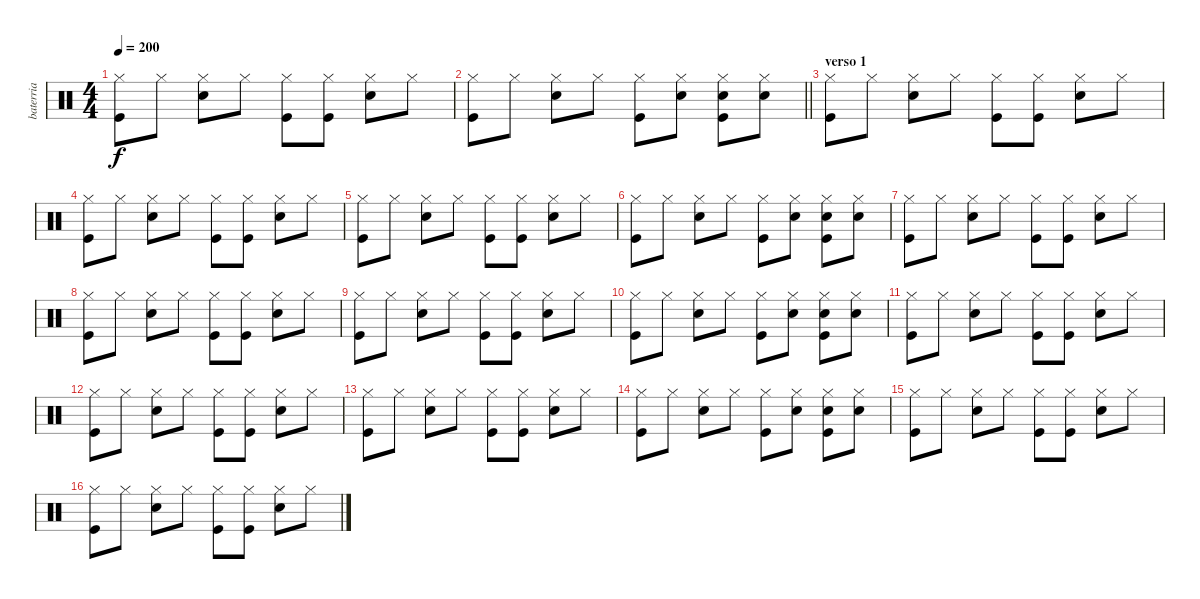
\track ("baterria" "baterria") {instrument percussion}
\staff {score}
\articulation defaults
\ts (4 4)
\tempo 200
\clef neutral
\ks c
("Hi-Hat (closed)" "Kick (hit)").8{dy f} "Hi-Hat (closed)".8 ("Hi-Hat (closed)" "Electric Snare (hit)").8 "Hi-Hat (closed)".8 ("Hi-Hat (closed)" "Kick (hit)").8 ("Hi-Hat (closed)" "Kick (hit)").8 ("Hi-Hat (closed)" "Electric Snare (hit)").8 "Hi-Hat (closed)".8 |
\barLineRight lightlight
("Hi-Hat (closed)" "Kick (hit)").8 "Hi-Hat (closed)".8 ("Hi-Hat (closed)" "Electric Snare (hit)").8 "Hi-Hat (closed)".8 ("Hi-Hat (closed)" "Kick (hit)").8 ("Hi-Hat (closed)" "Electric Snare (hit)").8 ("Hi-Hat (closed)" "Electric Snare (hit)" "Kick (hit)").8 ("Hi-Hat (closed)" "Electric Snare (hit)").8 |
\section ("" "verso 1")
("Hi-Hat (closed)" "Kick (hit)").8 "Hi-Hat (closed)".8 ("Hi-Hat (closed)" "Electric Snare (hit)").8 "Hi-Hat (closed)".8 ("Hi-Hat (closed)" "Kick (hit)").8 ("Hi-Hat (closed)" "Kick (hit)").8 ("Hi-Hat (closed)" "Electric Snare (hit)").8 "Hi-Hat (closed)".8 |
("Hi-Hat (closed)" "Kick (hit)").8 "Hi-Hat (closed)".8 ("Hi-Hat (closed)" "Electric Snare (hit)").8 "Hi-Hat (closed)".8 ("Hi-Hat (closed)" "Kick (hit)").8 ("Hi-Hat (closed)" "Kick (hit)").8 ("Hi-Hat (closed)" "Electric Snare (hit)").8 "Hi-Hat (closed)".8 |
("Hi-Hat (closed)" "Kick (hit)").8 "Hi-Hat (closed)".8 ("Hi-Hat (closed)" "Electric Snare (hit)").8 "Hi-Hat (closed)".8 ("Hi-Hat (closed)" "Kick (hit)").8 ("Hi-Hat (closed)" "Kick (hit)").8 ("Hi-Hat (closed)" "Electric Snare (hit)").8 "Hi-Hat (closed)".8 |
("Hi-Hat (closed)" "Kick (hit)").8 "Hi-Hat (closed)".8 ("Hi-Hat (closed)" "Electric Snare (hit)").8 "Hi-Hat (closed)".8 ("Hi-Hat (closed)" "Kick (hit)").8 ("Hi-Hat (closed)" "Electric Snare (hit)").8 ("Hi-Hat (closed)" "Electric Snare (hit)" "Kick (hit)").8 ("Hi-Hat (closed)" "Electric Snare (hit)").8 |
("Hi-Hat (closed)" "Kick (hit)").8 "Hi-Hat (closed)".8 ("Hi-Hat (closed)" "Electric Snare (hit)").8 "Hi-Hat (closed)".8 ("Hi-Hat (closed)" "Kick (hit)").8 ("Hi-Hat (closed)" "Kick (hit)").8 ("Hi-Hat (closed)" "Electric Snare (hit)").8 "Hi-Hat (closed)".8 |
("Hi-Hat (closed)" "Kick (hit)").8 "Hi-Hat (closed)".8 ("Hi-Hat (closed)" "Electric Snare (hit)").8 "Hi-Hat (closed)".8 ("Hi-Hat (closed)" "Kick (hit)").8 ("Hi-Hat (closed)" "Kick (hit)").8 ("Hi-Hat (closed)" "Electric Snare (hit)").8 "Hi-Hat (closed)".8 |
("Hi-Hat (closed)" "Kick (hit)").8 "Hi-Hat (closed)".8 ("Hi-Hat (closed)" "Electric Snare (hit)").8 "Hi-Hat (closed)".8 ("Hi-Hat (closed)" "Kick (hit)").8 ("Hi-Hat (closed)" "Kick (hit)").8 ("Hi-Hat (closed)" "Electric Snare (hit)").8 "Hi-Hat (closed)".8 |
("Hi-Hat (closed)" "Kick (hit)").8 "Hi-Hat (closed)".8 ("Hi-Hat (closed)" "Electric Snare (hit)").8 "Hi-Hat (closed)".8 ("Hi-Hat (closed)" "Kick (hit)").8 ("Hi-Hat (closed)" "Electric Snare (hit)").8 ("Hi-Hat (closed)" "Electric Snare (hit)" "Kick (hit)").8 ("Hi-Hat (closed)" "Electric Snare (hit)").8 |
("Hi-Hat (closed)" "Kick (hit)").8 "Hi-Hat (closed)".8 ("Hi-Hat (closed)" "Electric Snare (hit)").8 "Hi-Hat (closed)".8 ("Hi-Hat (closed)" "Kick (hit)").8 ("Hi-Hat (closed)" "Kick (hit)").8 ("Hi-Hat (closed)" "Electric Snare (hit)").8 "Hi-Hat (closed)".8 |
("Hi-Hat (closed)" "Kick (hit)").8 "Hi-Hat (closed)".8 ("Hi-Hat (closed)" "Electric Snare (hit)").8 "Hi-Hat (closed)".8 ("Hi-Hat (closed)" "Kick (hit)").8 ("Hi-Hat (closed)" "Kick (hit)").8 ("Hi-Hat (closed)" "Electric Snare (hit)").8 "Hi-Hat (closed)".8 |
("Hi-Hat (closed)" "Kick (hit)").8 "Hi-Hat (closed)".8 ("Hi-Hat (closed)" "Electric Snare (hit)").8 "Hi-Hat (closed)".8 ("Hi-Hat (closed)" "Kick (hit)").8 ("Hi-Hat (closed)" "Kick (hit)").8 ("Hi-Hat (closed)" "Electric Snare (hit)").8 "Hi-Hat (closed)".8 |
("Hi-Hat (closed)" "Kick (hit)").8 "Hi-Hat (closed)".8 ("Hi-Hat (closed)" "Electric Snare (hit)").8 "Hi-Hat (closed)".8 ("Hi-Hat (closed)" "Kick (hit)").8 ("Hi-Hat (closed)" "Electric Snare (hit)").8 ("Hi-Hat (closed)" "Electric Snare (hit)" "Kick (hit)").8 ("Hi-Hat (closed)" "Electric Snare (hit)").8 |
("Hi-Hat (closed)" "Kick (hit)").8 "Hi-Hat (closed)".8 ("Hi-Hat (closed)" "Electric Snare (hit)").8 "Hi-Hat (closed)".8 ("Hi-Hat (closed)" "Kick (hit)").8 ("Hi-Hat (closed)" "Kick (hit)").8 ("Hi-Hat (closed)" "Electric Snare (hit)").8 "Hi-Hat (closed)".8 |
("Hi-Hat (closed)" "Kick (hit)").8 "Hi-Hat (closed)".8 ("Hi-Hat (closed)" "Electric Snare (hit)").8 "Hi-Hat (closed)".8 ("Hi-Hat (closed)" "Kick (hit)").8 ("Hi-Hat (closed)" "Kick (hit)").8 ("Hi-Hat (closed)" "Electric Snare (hit)").8 "Hi-Hat (closed)".8
